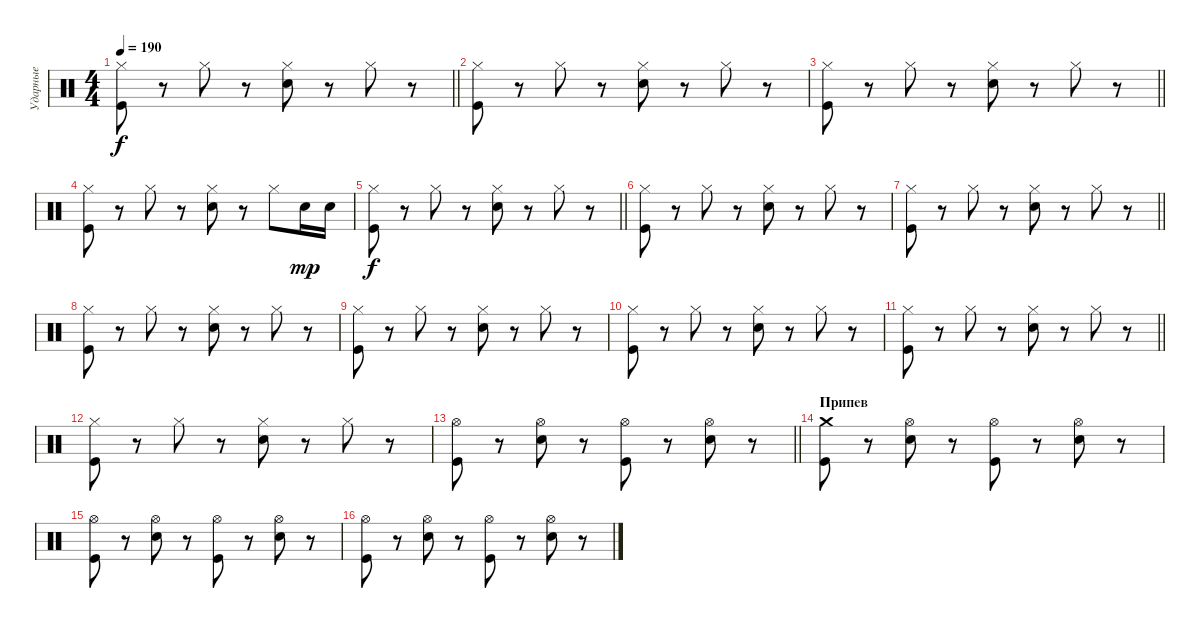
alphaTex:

\track ("Ударные" "Ударные") {instrument percussion}
\staff {score}
\articulation defaults
\ts (4 4)
\tempo 190
\clef neutral
\barLineRight lightlight
\ks c
("Hi-Hat (closed)" "Kick (hit)").8{dy f} r.8 "Hi-Hat (closed)".8 r.8 ("Hi-Hat (closed)" "Electric Snare (hit)").8 r.8 "Hi-Hat (closed)".8 r.8 |
("Hi-Hat (closed)" "Kick (hit)").8 r.8 "Hi-Hat (closed)".8 r.8 ("Hi-Hat (closed)" "Electric Snare (hit)").8 r.8 "Hi-Hat (closed)".8 r.8 |
\barLineRight lightlight
("Hi-Hat (closed)" "Kick (hit)").8 r.8 "Hi-Hat (closed)".8 r.8 ("Hi-Hat (closed)" "Electric Snare (hit)").8 r.8 "Hi-Hat (closed)".8 r.8 |
("Hi-Hat (closed)" "Kick (hit)").8 r.8 "Hi-Hat (closed)".8 r.8 ("Hi-Hat (closed)" "Electric Snare (hit)").8 r.8 "Hi-Hat (closed)".8 "Electric Snare (hit)".16{dy mp} "Electric Snare (hit)".16 |
\barLineRight lightlight
("Hi-Hat (closed)" "Kick (hit)").8{dy f} r.8 "Hi-Hat (closed)".8 r.8 ("Hi-Hat (closed)" "Electric Snare (hit)").8 r.8 "Hi-Hat (closed)".8 r.8 |
\section ("" " ")
("Hi-Hat (closed)" "Kick (hit)").8 r.8 "Hi-Hat (closed)".8 r.8 ("Hi-Hat (closed)" "Electric Snare (hit)").8 r.8 "Hi-Hat (closed)".8 r.8 |
\barLineRight lightlight
("Hi-Hat (closed)" "Kick (hit)").8 r.8 "Hi-Hat (closed)".8 r.8 ("Hi-Hat (closed)" "Electric Snare (hit)").8 r.8 "Hi-Hat (closed)".8 r.8 |
("Hi-Hat (closed)" "Kick (hit)").8 r.8 "Hi-Hat (closed)".8 r.8 ("Hi-Hat (closed)" "Electric Snare (hit)").8 r.8 "Hi-Hat (closed)".8 r.8 |
("Hi-Hat (closed)" "Kick (hit)").8 r.8 "Hi-Hat (closed)".8 r.8 ("Hi-Hat (closed)" "Electric Snare (hit)").8 r.8 "Hi-Hat (closed)".8 r.8 |
("Hi-Hat (closed)" "Kick (hit)").8 r.8 "Hi-Hat (closed)".8 r.8 ("Hi-Hat (closed)" "Electric Snare (hit)").8 r.8 "Hi-Hat (closed)".8 r.8 |
\barLineRight lightlight
("Hi-Hat (closed)" "Kick (hit)").8 r.8 "Hi-Hat (closed)".8 r.8 ("Hi-Hat (closed)" "Electric Snare (hit)").8 r.8 "Hi-Hat (closed)".8 r.8 |
("Hi-Hat (closed)" "Kick (hit)").8 r.8 "Hi-Hat (closed)".8 r.8 ("Hi-Hat (closed)" "Electric Snare (hit)").8 r.8 "Hi-Hat (closed)".8 r.8 |
\barLineRight lightlight
("Hi-Hat (open)" "Kick (hit)").8 r.8 ("Hi-Hat (open)" "Electric Snare (hit)").8 r.8 ("Hi-Hat (open)" "Kick (hit)").8 r.8 ("Hi-Hat (open)" "Electric Snare (hit)").8 r.8 |
\section ("" "Припев")
("Crash medium (hit)" "Kick (hit)").8 r.8 ("Hi-Hat (open)" "Electric Snare (hit)").8 r.8 ("Hi-Hat (open)" "Kick (hit)").8 r.8 ("Hi-Hat (open)" "Electric Snare (hit)").8 r.8 |
("Hi-Hat (open)" "Kick (hit)").8 r.8 ("Hi-Hat (open)" "Electric Snare (hit)").8 r.8 ("Hi-Hat (open)" "Kick (hit)").8 r.8 ("Hi-Hat (open)" "Electric Snare (hit)").8 r.8 |
("Hi-Hat (open)" "Kick (hit)").8 r.8 ("Hi-Hat (open)" "Electric Snare (hit)").8 r.8 ("Hi-Hat (open)" "Kick (hit)").8 r.8 ("Hi-Hat (open)" "Electric Snare (hit)").8 r.8
